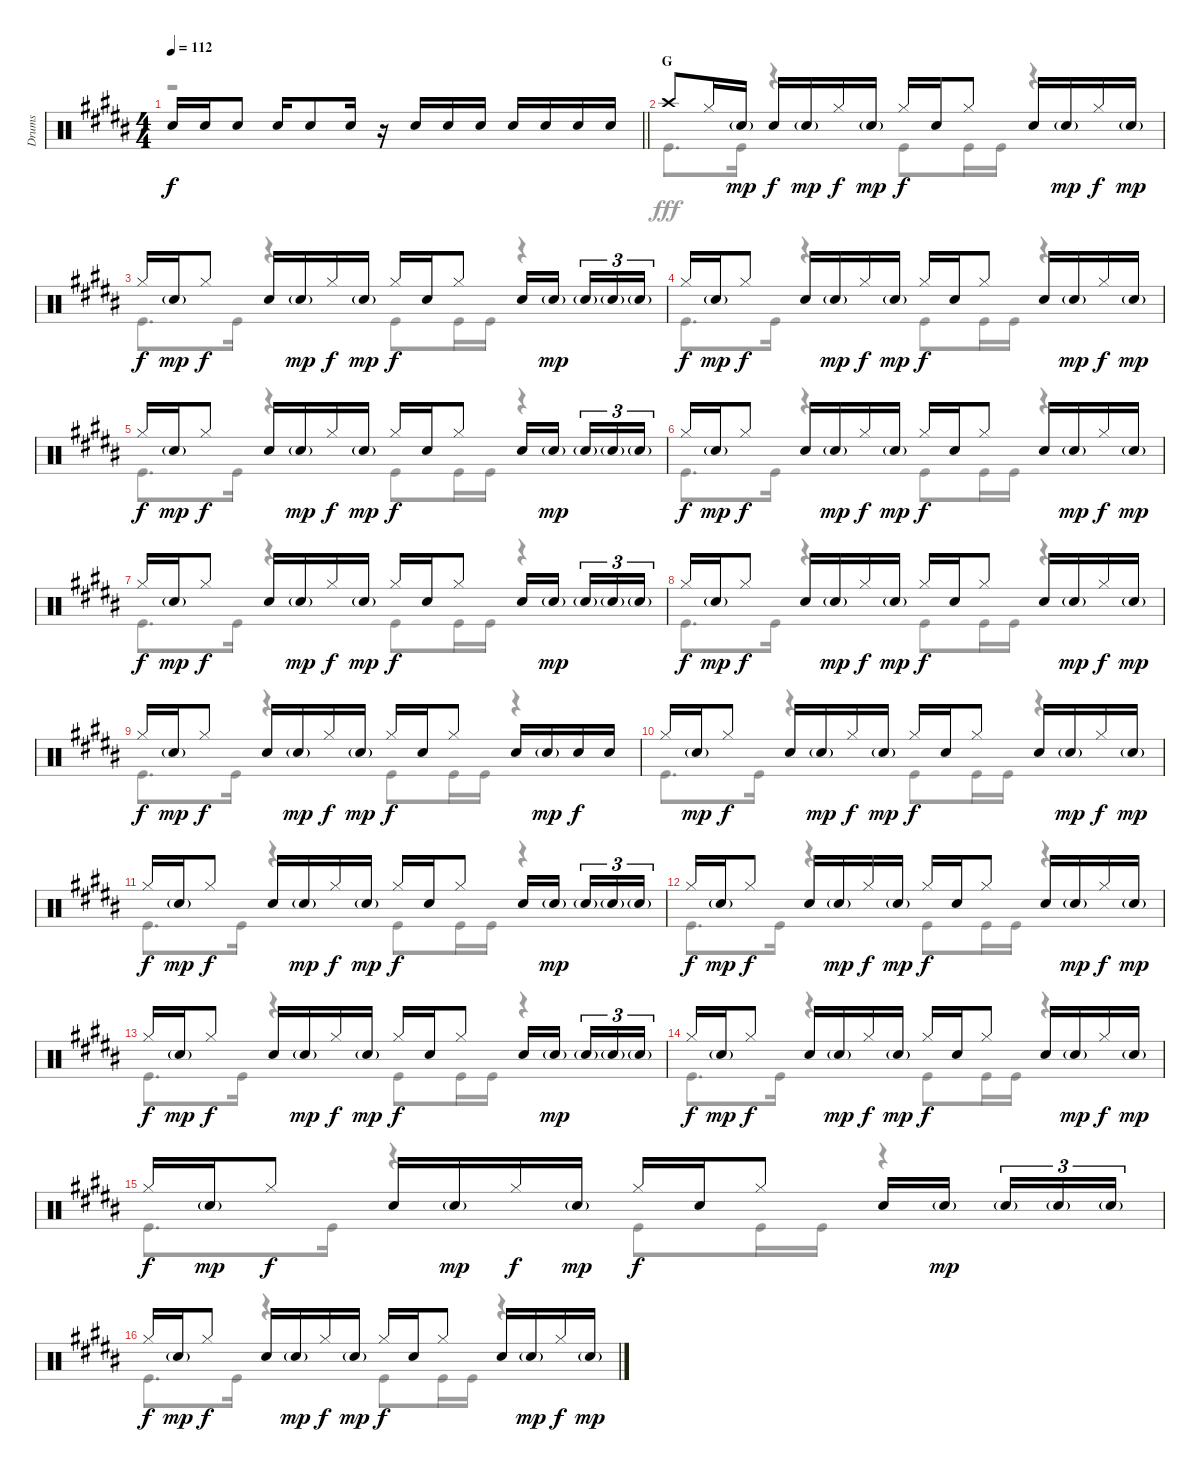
\track ("Drums" "Drums") {instrument percussion}
\staff {score}
\articulation defaults
\voice
\ts (4 4)
\tempo 112
\clef neutral
\barLineRight lightlight
\ks b "Snare (hit) 2".16{dy f} "Snare (hit) 2".16 "Snare (hit) 2".8 "Snare (hit) 2".16 "Snare (hit) 2".8 "Snare (hit) 2".16
r.16 "Snare (hit) 2".16 "Snare (hit) 2".16 "Snare (hit) 2".16 "Snare (hit) 2".16 "Snare (hit) 2".16 "Snare (hit) 2".16 "Snare (hit) 2".16 |
\section ("" "G")
"Crash high (hit)".8 "Hi-Hat (closed)".16 "Snare (hit) 2"{g}.16{dy mp} "Snare (hit) 2".16{dy f} "Snare (hit) 2"{g}.16{dy mp} "Hi-Hat (closed)".16{dy f} "Snare (hit) 2"{g}.16{dy mp} "Hi-Hat (closed)".16{dy f} "Snare (hit) 2".16 "Hi-Hat (closed)".8 "Snare (hit) 2".16 "Snare (hit) 2"{g}.16{dy mp} "Hi-Hat (closed)".16{dy f} "Snare (hit) 2"{g}.16{dy mp} |
"Hi-Hat (closed)".16{dy f} "Snare (hit) 2"{g}.16{dy mp} "Hi-Hat (closed)".8{dy f} "Snare (hit) 2".16 "Snare (hit) 2"{g}.16{dy mp} "Hi-Hat (closed)".16{dy f} "Snare (hit) 2"{g}.16{dy mp} "Hi-Hat (closed)".16{dy f} "Snare (hit) 2".16 "Hi-Hat (closed)".8 "Snare (hit) 2".16 "Snare (hit) 2"{g}.16{dy mp beam splitsecondary} "Snare (hit) 2"{g}.16{tu (3 2)} "Snare (hit) 2"{g}.16{tu (3 2)} "Snare (hit) 2"{g}.16{tu (3 2)} |
"Hi-Hat (closed)".16{dy f} "Snare (hit) 2"{g}.16{dy mp} "Hi-Hat (closed)".8{dy f} "Snare (hit) 2".16 "Snare (hit) 2"{g}.16{dy mp} "Hi-Hat (closed)".16{dy f} "Snare (hit) 2"{g}.16{dy mp} "Hi-Hat (closed)".16{dy f} "Snare (hit) 2".16 "Hi-Hat (closed)".8 "Snare (hit) 2".16 "Snare (hit) 2"{g}.16{dy mp} "Hi-Hat (closed)".16{dy f} "Snare (hit) 2"{g}.16{dy mp} |
"Hi-Hat (closed)".16{dy f} "Snare (hit) 2"{g}.16{dy mp} "Hi-Hat (closed)".8{dy f} "Snare (hit) 2".16 "Snare (hit) 2"{g}.16{dy mp} "Hi-Hat (closed)".16{dy f} "Snare (hit) 2"{g}.16{dy mp} "Hi-Hat (closed)".16{dy f} "Snare (hit) 2".16 "Hi-Hat (closed)".8 "Snare (hit) 2".16 "Snare (hit) 2"{g}.16{dy mp beam splitsecondary} "Snare (hit) 2"{g}.16{tu (3 2)} "Snare (hit) 2"{g}.16{tu (3 2)} "Snare (hit) 2"{g}.16{tu (3 2)} |
"Hi-Hat (closed)".16{dy f} "Snare (hit) 2"{g}.16{dy mp} "Hi-Hat (closed)".8{dy f} "Snare (hit) 2".16 "Snare (hit) 2"{g}.16{dy mp} "Hi-Hat (closed)".16{dy f} "Snare (hit) 2"{g}.16{dy mp} "Hi-Hat (closed)".16{dy f} "Snare (hit) 2".16 "Hi-Hat (closed)".8 "Snare (hit) 2".16 "Snare (hit) 2"{g}.16{dy mp} "Hi-Hat (closed)".16{dy f} "Snare (hit) 2"{g}.16{dy mp} |
"Hi-Hat (closed)".16{dy f} "Snare (hit) 2"{g}.16{dy mp} "Hi-Hat (closed)".8{dy f} "Snare (hit) 2".16 "Snare (hit) 2"{g}.16{dy mp} "Hi-Hat (closed)".16{dy f} "Snare (hit) 2"{g}.16{dy mp} "Hi-Hat (closed)".16{dy f} "Snare (hit) 2".16 "Hi-Hat (closed)".8 "Snare (hit) 2".16 "Snare (hit) 2"{g}.16{dy mp beam splitsecondary} "Snare (hit) 2"{g}.16{tu (3 2)} "Snare (hit) 2"{g}.16{tu (3 2)} "Snare (hit) 2"{g}.16{tu (3 2)} |
"Hi-Hat (closed)".16{dy f} "Snare (hit) 2"{g}.16{dy mp} "Hi-Hat (closed)".8{dy f} "Snare (hit) 2".16 "Snare (hit) 2"{g}.16{dy mp} "Hi-Hat (closed)".16{dy f} "Snare (hit) 2"{g}.16{dy mp} "Hi-Hat (closed)".16{dy f} "Snare (hit) 2".16 "Hi-Hat (closed)".8 "Snare (hit) 2".16 "Snare (hit) 2"{g}.16{dy mp} "Hi-Hat (closed)".16{dy f} "Snare (hit) 2"{g}.16{dy mp} |
"Hi-Hat (closed)".16{dy f} "Snare (hit) 2"{g}.16{dy mp} "Hi-Hat (closed)".8{dy f} "Snare (hit) 2".16 "Snare (hit) 2"{g}.16{dy mp} "Hi-Hat (closed)".16{dy f} "Snare (hit) 2"{g}.16{dy mp} "Hi-Hat (closed)".16{dy f} "Snare (hit) 2".16 "Hi-Hat (closed)".8 "Snare (hit) 2".16 "Snare (hit) 2"{g}.16{dy mp} "Snare (hit) 2".16{dy f} "Snare (hit) 2".16 |
"Hi-Hat (closed)".16 "Snare (hit) 2"{g}.16{dy mp} "Hi-Hat (closed)".8{dy f} "Snare (hit) 2".16 "Snare (hit) 2"{g}.16{dy mp} "Hi-Hat (closed)".16{dy f} "Snare (hit) 2"{g}.16{dy mp} "Hi-Hat (closed)".16{dy f} "Snare (hit) 2".16 "Hi-Hat (closed)".8 "Snare (hit) 2".16 "Snare (hit) 2"{g}.16{dy mp} "Hi-Hat (closed)".16{dy f} "Snare (hit) 2"{g}.16{dy mp} |
"Hi-Hat (closed)".16{dy f} "Snare (hit) 2"{g}.16{dy mp} "Hi-Hat (closed)".8{dy f} "Snare (hit) 2".16 "Snare (hit) 2"{g}.16{dy mp} "Hi-Hat (closed)".16{dy f} "Snare (hit) 2"{g}.16{dy mp} "Hi-Hat (closed)".16{dy f} "Snare (hit) 2".16 "Hi-Hat (closed)".8 "Snare (hit) 2".16 "Snare (hit) 2"{g}.16{dy mp beam splitsecondary} "Snare (hit) 2"{g}.16{tu (3 2)} "Snare (hit) 2"{g}.16{tu (3 2)} "Snare (hit) 2"{g}.16{tu (3 2)} |
"Hi-Hat (closed)".16{dy f} "Snare (hit) 2"{g}.16{dy mp} "Hi-Hat (closed)".8{dy f} "Snare (hit) 2".16 "Snare (hit) 2"{g}.16{dy mp} "Hi-Hat (closed)".16{dy f} "Snare (hit) 2"{g}.16{dy mp} "Hi-Hat (closed)".16{dy f} "Snare (hit) 2".16 "Hi-Hat (closed)".8 "Snare (hit) 2".16 "Snare (hit) 2"{g}.16{dy mp} "Hi-Hat (closed)".16{dy f} "Snare (hit) 2"{g}.16{dy mp} |
"Hi-Hat (closed)".16{dy f} "Snare (hit) 2"{g}.16{dy mp} "Hi-Hat (closed)".8{dy f} "Snare (hit) 2".16 "Snare (hit) 2"{g}.16{dy mp} "Hi-Hat (closed)".16{dy f} "Snare (hit) 2"{g}.16{dy mp} "Hi-Hat (closed)".16{dy f} "Snare (hit) 2".16 "Hi-Hat (closed)".8 "Snare (hit) 2".16 "Snare (hit) 2"{g}.16{dy mp beam splitsecondary} "Snare (hit) 2"{g}.16{tu (3 2)} "Snare (hit) 2"{g}.16{tu (3 2)} "Snare (hit) 2"{g}.16{tu (3 2)} |
"Hi-Hat (closed)".16{dy f} "Snare (hit) 2"{g}.16{dy mp} "Hi-Hat (closed)".8{dy f} "Snare (hit) 2".16 "Snare (hit) 2"{g}.16{dy mp} "Hi-Hat (closed)".16{dy f} "Snare (hit) 2"{g}.16{dy mp} "Hi-Hat (closed)".16{dy f} "Snare (hit) 2".16 "Hi-Hat (closed)".8 "Snare (hit) 2".16 "Snare (hit) 2"{g}.16{dy mp} "Hi-Hat (closed)".16{dy f} "Snare (hit) 2"{g}.16{dy mp} |
"Hi-Hat (closed)".16{dy f} "Snare (hit) 2"{g}.16{dy mp} "Hi-Hat (closed)".8{dy f} "Snare (hit) 2".16 "Snare (hit) 2"{g}.16{dy mp} "Hi-Hat (closed)".16{dy f} "Snare (hit) 2"{g}.16{dy mp} "Hi-Hat (closed)".16{dy f} "Snare (hit) 2".16 "Hi-Hat (closed)".8 "Snare (hit) 2".16 "Snare (hit) 2"{g}.16{dy mp beam splitsecondary} "Snare (hit) 2"{g}.16{tu (3 2)} "Snare (hit) 2"{g}.16{tu (3 2)} "Snare (hit) 2"{g}.16{tu (3 2)} |
"Hi-Hat (closed)".16{dy f} "Snare (hit) 2"{g}.16{dy mp} "Hi-Hat (closed)".8{dy f} "Snare (hit) 2".16 "Snare (hit) 2"{g}.16{dy mp} "Hi-Hat (closed)".16{dy f} "Snare (hit) 2"{g}.16{dy mp} "Hi-Hat (closed)".16{dy f} "Snare (hit) 2".16 "Hi-Hat (closed)".8 "Snare (hit) 2".16 "Snare (hit) 2"{g}.16{dy mp} "Hi-Hat (closed)".16{dy f} "Snare (hit) 2"{g}.16{dy mp}
\voice
\clef neutral
\ottava regular
\simile none
\barLineRight lightlight
\ks b
r.1{dy fff} |
"Kick (hit)".8{d} "Kick (hit)".16 r.4 "Kick (hit)".8 "Kick (hit)".16 "Kick (hit)".16 r.4 |
"Kick (hit)".8{d} "Kick (hit)".16 r.4 "Kick (hit)".8 "Kick (hit)".16 "Kick (hit)".16 r.4 |
"Kick (hit)".8{d} "Kick (hit)".16 r.4 "Kick (hit)".8 "Kick (hit)".16 "Kick (hit)".16 r.4 |
"Kick (hit)".8{d} "Kick (hit)".16 r.4 "Kick (hit)".8 "Kick (hit)".16 "Kick (hit)".16 r.4 |
"Kick (hit)".8{d} "Kick (hit)".16 r.4 "Kick (hit)".8 "Kick (hit)".16 "Kick (hit)".16 r.4 |
"Kick (hit)".8{d} "Kick (hit)".16 r.4 "Kick (hit)".8 "Kick (hit)".16 "Kick (hit)".16 r.4 |
"Kick (hit)".8{d} "Kick (hit)".16 r.4 "Kick (hit)".8 "Kick (hit)".16 "Kick (hit)".16 r.4 |
"Kick (hit)".8{d} "Kick (hit)".16 r.4 "Kick (hit)".8 "Kick (hit)".16 "Kick (hit)".16 r.4 |
"Kick (hit)".8{d} "Kick (hit)".16 r.4 "Kick (hit)".8 "Kick (hit)".16 "Kick (hit)".16 r.4 |
"Kick (hit)".8{d} "Kick (hit)".16 r.4 "Kick (hit)".8 "Kick (hit)".16 "Kick (hit)".16 r.4 |
"Kick (hit)".8{d} "Kick (hit)".16 r.4 "Kick (hit)".8 "Kick (hit)".16 "Kick (hit)".16 r.4 |
"Kick (hit)".8{d} "Kick (hit)".16 r.4 "Kick (hit)".8 "Kick (hit)".16 "Kick (hit)".16 r.4 |
"Kick (hit)".8{d} "Kick (hit)".16 r.4 "Kick (hit)".8 "Kick (hit)".16 "Kick (hit)".16 r.4 |
"Kick (hit)".8{d} "Kick (hit)".16 r.4 "Kick (hit)".8 "Kick (hit)".16 "Kick (hit)".16 r.4 |
"Kick (hit)".8{d} "Kick (hit)".16 r.4 "Kick (hit)".8 "Kick (hit)".16 "Kick (hit)".16 r.4
